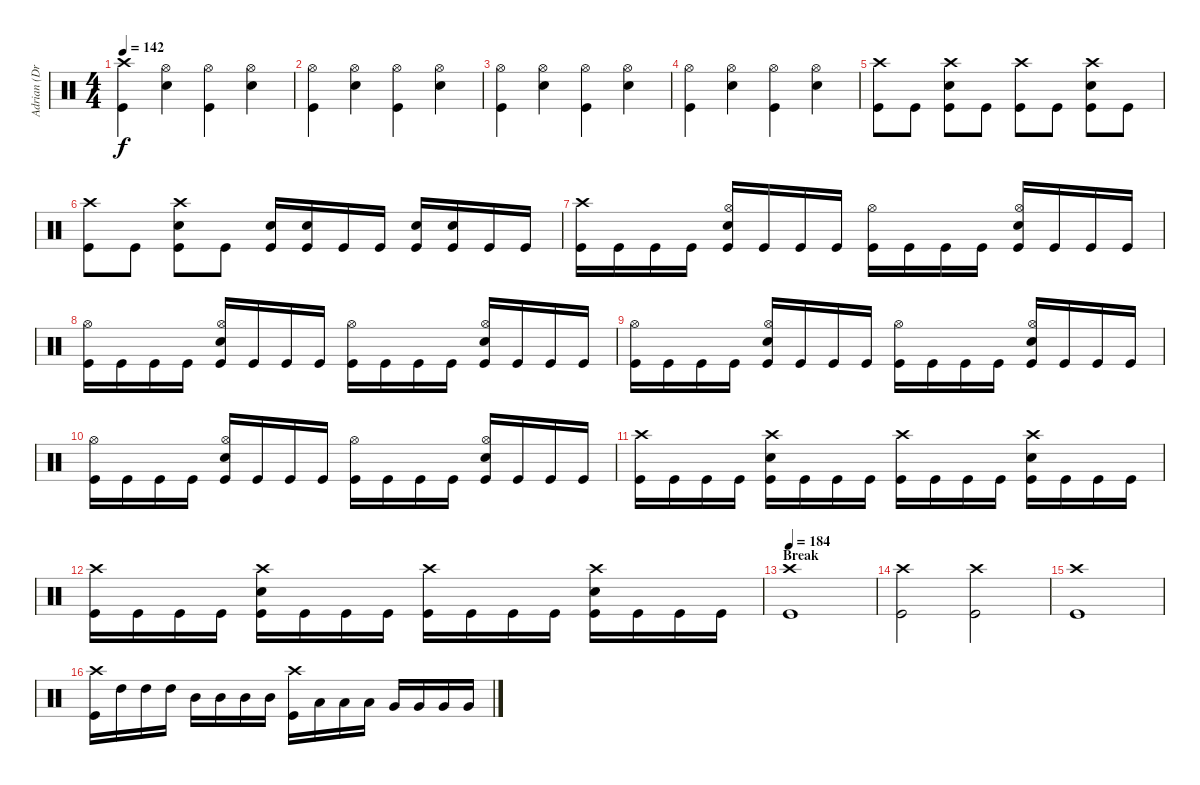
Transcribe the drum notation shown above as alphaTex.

\track ("Adrian (Drums)" "Adrian (Dr") {instrument percussion}
\staff {score}
\articulation defaults
\ts (4 4)
\tempo 142
\clef neutral
\ks c
("Crash high (hit)" "Kick (hit)").4{dy f} ("Hi-Hat (open)" "Electric Snare (hit)").4 ("Hi-Hat (open)" "Kick (hit)").4 ("Hi-Hat (open)" "Electric Snare (hit)").4 |
("Hi-Hat (open)" "Kick (hit)").4 ("Hi-Hat (open)" "Electric Snare (hit)").4 ("Hi-Hat (open)" "Kick (hit)").4 ("Hi-Hat (open)" "Electric Snare (hit)").4 |
("Hi-Hat (open)" "Kick (hit)").4 ("Hi-Hat (open)" "Electric Snare (hit)").4 ("Hi-Hat (open)" "Kick (hit)").4 ("Hi-Hat (open)" "Electric Snare (hit)").4 |
("Hi-Hat (open)" "Kick (hit)").4 ("Hi-Hat (open)" "Electric Snare (hit)").4 ("Hi-Hat (open)" "Kick (hit)").4 ("Hi-Hat (open)" "Electric Snare (hit)").4 |
("Crash high (hit)" "Kick (hit)").8 "Kick (hit)".8 ("Crash high (hit)" "Electric Snare (hit)" "Kick (hit)").8 "Kick (hit)".8 ("Crash high (hit)" "Kick (hit)").8 "Kick (hit)".8 ("Crash high (hit)" "Electric Snare (hit)" "Kick (hit)").8 "Kick (hit)".8 |
("Crash high (hit)" "Kick (hit)").8 "Kick (hit)".8 ("Crash high (hit)" "Electric Snare (hit)" "Kick (hit)").8 "Kick (hit)".8 ("Electric Snare (hit)" "Kick (hit)").16 ("Electric Snare (hit)" "Kick (hit)").16 "Kick (hit)".16 "Kick (hit)".16 ("Electric Snare (hit)" "Kick (hit)").16 ("Electric Snare (hit)" "Kick (hit)").16 "Kick (hit)".16 "Kick (hit)".16 |
("Crash high (hit)" "Kick (hit)").16 "Kick (hit)".16 "Kick (hit)".16 "Kick (hit)".16 ("Hi-Hat (open)" "Electric Snare (hit)" "Kick (hit)").16 "Kick (hit)".16 "Kick (hit)".16 "Kick (hit)".16 ("Hi-Hat (open)" "Kick (hit)").16 "Kick (hit)".16 "Kick (hit)".16 "Kick (hit)".16 ("Hi-Hat (open)" "Electric Snare (hit)" "Kick (hit)").16 "Kick (hit)".16 "Kick (hit)".16 "Kick (hit)".16 |
("Hi-Hat (open)" "Kick (hit)").16 "Kick (hit)".16 "Kick (hit)".16 "Kick (hit)".16 ("Hi-Hat (open)" "Electric Snare (hit)" "Kick (hit)").16 "Kick (hit)".16 "Kick (hit)".16 "Kick (hit)".16 ("Hi-Hat (open)" "Kick (hit)").16 "Kick (hit)".16 "Kick (hit)".16 "Kick (hit)".16 ("Hi-Hat (open)" "Electric Snare (hit)" "Kick (hit)").16 "Kick (hit)".16 "Kick (hit)".16 "Kick (hit)".16 |
("Hi-Hat (open)" "Kick (hit)").16 "Kick (hit)".16 "Kick (hit)".16 "Kick (hit)".16 ("Hi-Hat (open)" "Electric Snare (hit)" "Kick (hit)").16 "Kick (hit)".16 "Kick (hit)".16 "Kick (hit)".16 ("Hi-Hat (open)" "Kick (hit)").16 "Kick (hit)".16 "Kick (hit)".16 "Kick (hit)".16 ("Hi-Hat (open)" "Electric Snare (hit)" "Kick (hit)").16 "Kick (hit)".16 "Kick (hit)".16 "Kick (hit)".16 |
("Hi-Hat (open)" "Kick (hit)").16 "Kick (hit)".16 "Kick (hit)".16 "Kick (hit)".16 ("Hi-Hat (open)" "Electric Snare (hit)" "Kick (hit)").16 "Kick (hit)".16 "Kick (hit)".16 "Kick (hit)".16 ("Hi-Hat (open)" "Kick (hit)").16 "Kick (hit)".16 "Kick (hit)".16 "Kick (hit)".16 ("Hi-Hat (open)" "Electric Snare (hit)" "Kick (hit)").16 "Kick (hit)".16 "Kick (hit)".16 "Kick (hit)".16 |
("Crash high (hit)" "Kick (hit)").16 "Kick (hit)".16 "Kick (hit)".16 "Kick (hit)".16 ("Crash high (hit)" "Electric Snare (hit)" "Kick (hit)").16 "Kick (hit)".16 "Kick (hit)".16 "Kick (hit)".16 ("Crash high (hit)" "Kick (hit)").16 "Kick (hit)".16 "Kick (hit)".16 "Kick (hit)".16 ("Crash high (hit)" "Electric Snare (hit)" "Kick (hit)").16 "Kick (hit)".16 "Kick (hit)".16 "Kick (hit)".16 |
("Crash high (hit)" "Kick (hit)").16 "Kick (hit)".16 "Kick (hit)".16 "Kick (hit)".16 ("Crash high (hit)" "Electric Snare (hit)" "Kick (hit)").16 "Kick (hit)".16 "Kick (hit)".16 "Kick (hit)".16 ("Crash high (hit)" "Kick (hit)").16 "Kick (hit)".16 "Kick (hit)".16 "Kick (hit)".16 ("Crash high (hit)" "Electric Snare (hit)" "Kick (hit)").16 "Kick (hit)".16 "Kick (hit)".16 "Kick (hit)".16 |
\section ("" "Break")
\tempo 184
("Crash high (hit)" "Kick (hit)").1 |
("Crash high (hit)" "Kick (hit)").2 ("Crash high (hit)" "Kick (hit)").2 |
("Crash high (hit)" "Kick (hit)").1 |
("Crash high (hit)" "Kick (hit)").16 "High Tom (hit)".16 "High Tom (hit)".16 "High Tom (hit)".16 "Mid Tom (hit)".16 "Mid Tom (hit)".16 "Mid Tom (hit)".16 "Mid Tom (hit)".16 ("Crash high (hit)" "Kick (hit)").16 "Low Tom (hit)".16 "Low Tom (hit)".16 "Low Tom (hit)".16 "Very Low Tom (hit)".16 "Very Low Tom (hit)".16 "Very Low Tom (hit)".16 "Very Low Tom (hit)".16
